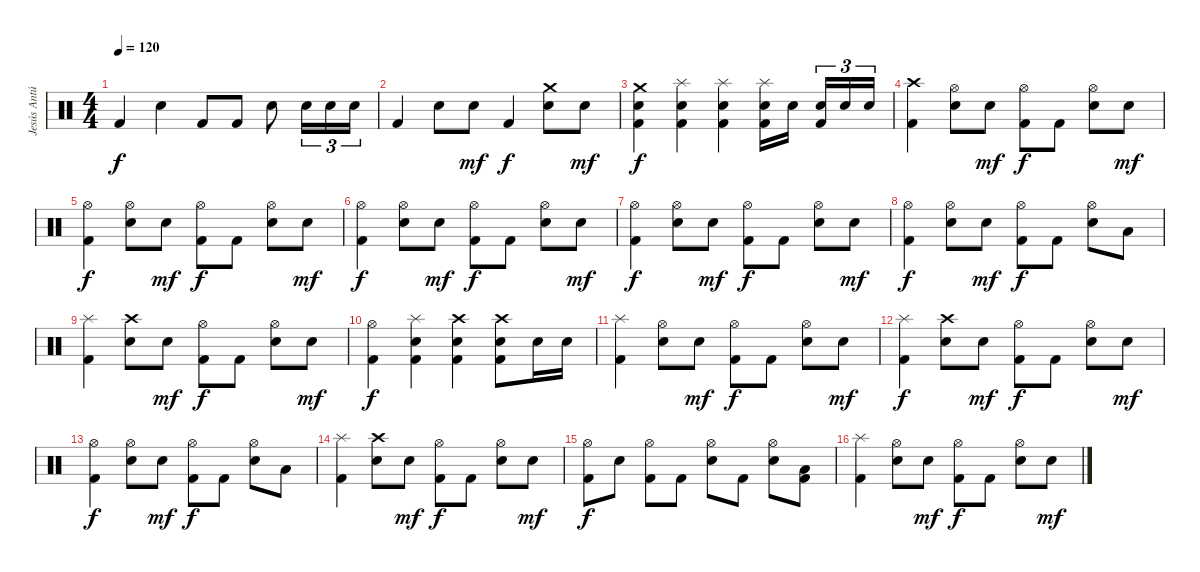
\track ("Jesús Antúnez" "Jesús Antú") {instrument percussion}
\staff {score}
\articulation defaults
\ts (4 4)
\tempo 120
\clef neutral
\ks c "Kick (hit) 2".4{dy f} "Electric Snare (hit)".4 "Kick (hit) 2".8 "Kick (hit) 2".8 "Electric Snare (hit)".8 "Electric Snare (hit)".16{tu (3 2)} "Electric Snare (hit)".16{tu (3 2)} "Electric Snare (hit)".16{tu (3 2)}
|
"Kick (hit) 2".4 "Electric Snare (hit)".8 "Electric Snare (hit)".8{dy mf} "Kick (hit) 2".4{dy f} ("Electric Snare (hit)" "Crash medium (hit)").8 "Electric Snare (hit)".8{dy mf} |
("Kick (hit) 2" "Electric Snare (hit)" "Crash medium (hit)").4{dy f} ("Kick (hit) 2" "Electric Snare (hit)" "Splash (hit)").4 ("Kick (hit) 2" "Electric Snare (hit)" "Splash (hit)").4 ("Kick (hit) 2" "Electric Snare (hit)" "Splash (hit)").16 "Electric Snare (hit)".16 ("Kick (hit) 2" "Electric Snare (hit)").16{tu (3 2)} "Electric Snare (hit)".16{tu (3 2)} "Electric Snare (hit)".16{tu (3 2)} |
("Kick (hit) 2" "Crash high (hit)").4 ("Electric Snare (hit)" "Hi-Hat (open)").8 "Electric Snare (hit)".8{dy mf} ("Kick (hit) 2" "Hi-Hat (open)").8{dy f} "Kick (hit) 2".8 ("Electric Snare (hit)" "Hi-Hat (open)").8 "Electric Snare (hit)".8{dy mf} |
("Kick (hit) 2" "Hi-Hat (open)").4{dy f} ("Electric Snare (hit)" "Hi-Hat (open)").8 "Electric Snare (hit)".8{dy mf} ("Kick (hit) 2" "Hi-Hat (open)").8{dy f} "Kick (hit) 2".8 ("Electric Snare (hit)" "Hi-Hat (open)").8 "Electric Snare (hit)".8{dy mf} |
("Kick (hit) 2" "Hi-Hat (open)").4{dy f} ("Electric Snare (hit)" "Hi-Hat (open)").8 "Electric Snare (hit)".8{dy mf} ("Kick (hit) 2" "Hi-Hat (open)").8{dy f} "Kick (hit) 2".8 ("Electric Snare (hit)" "Hi-Hat (open)").8 "Electric Snare (hit)".8{dy mf} |
("Kick (hit) 2" "Hi-Hat (open)").4{dy f} ("Electric Snare (hit)" "Hi-Hat (open)").8 "Electric Snare (hit)".8{dy mf} ("Kick (hit) 2" "Hi-Hat (open)").8{dy f} "Kick (hit) 2".8 ("Electric Snare (hit)" "Hi-Hat (open)").8 "Electric Snare (hit)".8{dy mf} |
("Kick (hit) 2" "Hi-Hat (open)").4{dy f} ("Electric Snare (hit)" "Hi-Hat (open)").8 "Electric Snare (hit)".8{dy mf} ("Kick (hit) 2" "Hi-Hat (open)").8{dy f} "Kick (hit) 2".8 ("Electric Snare (hit)" "Hi-Hat (open)").8 "Low Tom (hit)".8 |
("Kick (hit) 2" "Splash (hit)").4 ("Electric Snare (hit)" "Crash high (hit)").8 "Electric Snare (hit)".8{dy mf} ("Kick (hit) 2" "Hi-Hat (open)").8{dy f} "Kick (hit) 2".8 ("Electric Snare (hit)" "Hi-Hat (open)").8 "Electric Snare (hit)".8{dy mf} |
("Kick (hit) 2" "Hi-Hat (open)").4{dy f} ("Kick (hit) 2" "Electric Snare (hit)" "Splash (hit)").4 ("Kick (hit) 2" "Electric Snare (hit)" "Crash high (hit)").4 ("Kick (hit) 2" "Electric Snare (hit)" "Crash high (hit)").8 "Electric Snare (hit)".16 "Electric Snare (hit)".16 |
("Kick (hit) 2" "Splash (hit)").4 ("Electric Snare (hit)" "Hi-Hat (open)").8 "Electric Snare (hit)".8{dy mf} ("Kick (hit) 2" "Hi-Hat (open)").8{dy f} "Kick (hit) 2".8 ("Electric Snare (hit)" "Hi-Hat (open)").8 "Electric Snare (hit)".8{dy mf} |
("Kick (hit) 2" "Splash (hit)").4{dy f} ("Electric Snare (hit)" "Crash high (hit)").8 "Electric Snare (hit)".8{dy mf} ("Kick (hit) 2" "Hi-Hat (open)").8{dy f} "Kick (hit) 2".8 ("Electric Snare (hit)" "Hi-Hat (open)").8 "Electric Snare (hit)".8{dy mf} |
("Kick (hit) 2" "Hi-Hat (open)").4{dy f} ("Electric Snare (hit)" "Hi-Hat (open)").8 "Electric Snare (hit)".8{dy mf} ("Kick (hit) 2" "Hi-Hat (open)").8{dy f} "Kick (hit) 2".8 ("Electric Snare (hit)" "Hi-Hat (open)").8 "Low Tom (hit)".8 |
("Kick (hit) 2" "Splash (hit)").4 ("Electric Snare (hit)" "Crash high (hit)").8 "Electric Snare (hit)".8{dy mf} ("Kick (hit) 2" "Hi-Hat (open)").8{dy f} "Kick (hit) 2".8 ("Electric Snare (hit)" "Hi-Hat (open)").8 "Electric Snare (hit)".8{dy mf} |
("Kick (hit) 2" "Hi-Hat (open)").8{dy f} "Electric Snare (hit)".8 ("Kick (hit) 2" "Hi-Hat (open)").8 "Kick (hit) 2".8 ("Electric Snare (hit)" "Hi-Hat (open)").8 "Kick (hit) 2".8 ("Electric Snare (hit)" "Hi-Hat (open)").8 ("Kick (hit) 2" "Low Tom (hit)").8 |
("Kick (hit) 2" "Splash (hit)").4 ("Electric Snare (hit)" "Hi-Hat (open)").8 "Electric Snare (hit)".8{dy mf} ("Kick (hit) 2" "Hi-Hat (open)").8{dy f} "Kick (hit) 2".8 ("Electric Snare (hit)" "Hi-Hat (open)").8 "Electric Snare (hit)".8{dy mf}
